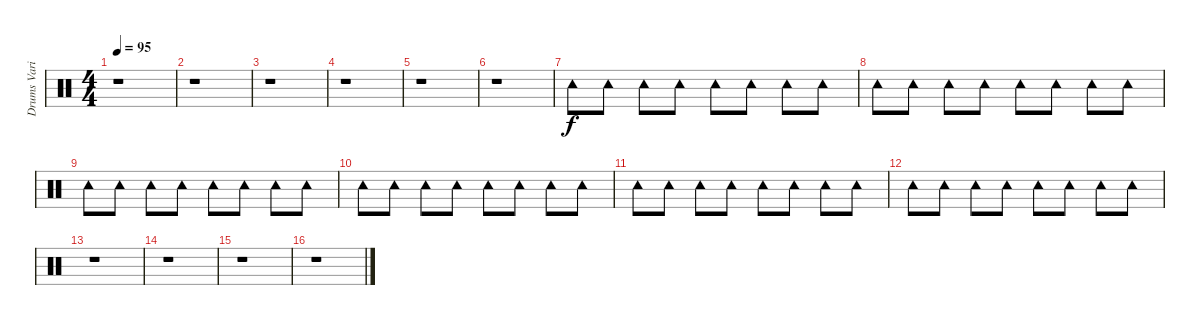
\track ("Drums Variation" "Drums Vari") {instrument percussion}
\staff {score}
\articulation defaults
\ts (4 4)
\tempo 95
\clef neutral
\ks c
r.1{dy f} |
r.1 |
r.1 |
r.1 |
r.1 |
r.1 |
"Tambourine (hit)".8 "Tambourine (hit)".8 "Tambourine (hit)".8 "Tambourine (hit)".8 "Tambourine (hit)".8 "Tambourine (hit)".8 "Tambourine (hit)".8 "Tambourine (hit)".8 |
"Tambourine (hit)".8 "Tambourine (hit)".8 "Tambourine (hit)".8 "Tambourine (hit)".8 "Tambourine (hit)".8 "Tambourine (hit)".8 "Tambourine (hit)".8 "Tambourine (hit)".8 |
"Tambourine (hit)".8 "Tambourine (hit)".8 "Tambourine (hit)".8 "Tambourine (hit)".8 "Tambourine (hit)".8 "Tambourine (hit)".8 "Tambourine (hit)".8 "Tambourine (hit)".8 |
"Tambourine (hit)".8 "Tambourine (hit)".8 "Tambourine (hit)".8 "Tambourine (hit)".8 "Tambourine (hit)".8 "Tambourine (hit)".8 "Tambourine (hit)".8 "Tambourine (hit)".8 |
"Tambourine (hit)".8 "Tambourine (hit)".8 "Tambourine (hit)".8 "Tambourine (hit)".8 "Tambourine (hit)".8 "Tambourine (hit)".8 "Tambourine (hit)".8 "Tambourine (hit)".8 |
"Tambourine (hit)".8 "Tambourine (hit)".8 "Tambourine (hit)".8 "Tambourine (hit)".8 "Tambourine (hit)".8 "Tambourine (hit)".8 "Tambourine (hit)".8 "Tambourine (hit)".8 |
r.1 |
r.1 |
r.1 |
r.1
